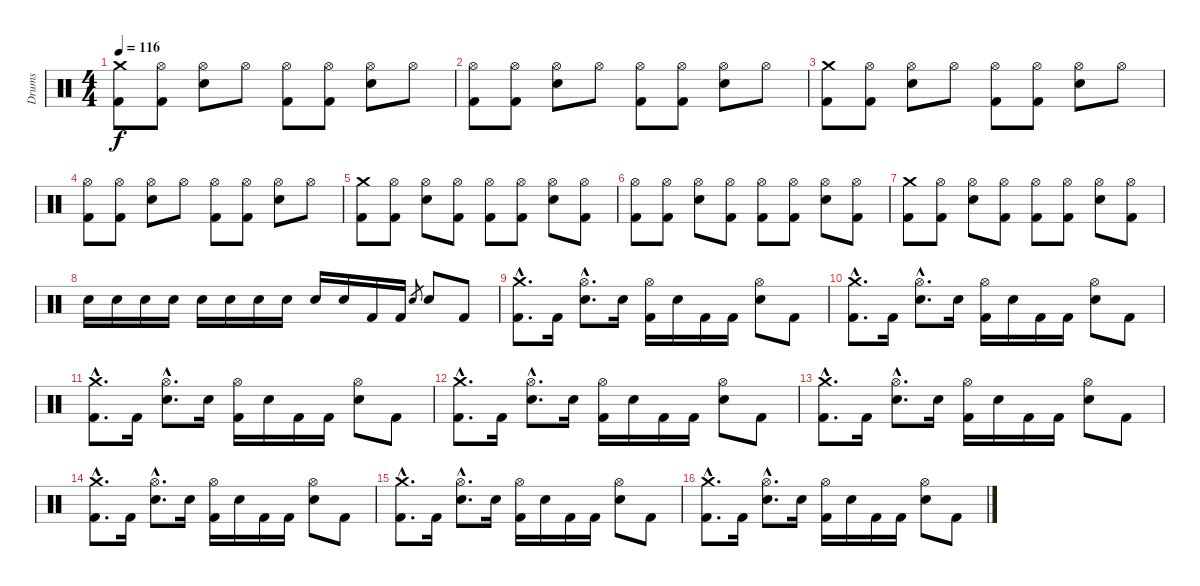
\track ("Drums" "Drums") {instrument percussion}
\staff {score}
\articulation defaults
\ts (4 4)
\tempo 116
\clef neutral
\ks c
("Crash medium (hit)" "Kick (hit) 2").8{dy f} ("Hi-Hat (open)" "Kick (hit) 2").8 ("Hi-Hat (open)" "Electric Snare (hit)").8 "Hi-Hat (open)".8 ("Hi-Hat (open)" "Kick (hit) 2").8 ("Hi-Hat (open)" "Kick (hit) 2").8 ("Hi-Hat (open)" "Electric Snare (hit)").8 "Hi-Hat (open)".8 |
("Hi-Hat (open)" "Kick (hit) 2").8 ("Hi-Hat (open)" "Kick (hit) 2").8 ("Hi-Hat (open)" "Electric Snare (hit)").8 "Hi-Hat (open)".8 ("Hi-Hat (open)" "Kick (hit) 2").8 ("Hi-Hat (open)" "Kick (hit) 2").8 ("Hi-Hat (open)" "Electric Snare (hit)").8 "Hi-Hat (open)".8 |
("Crash medium (hit)" "Kick (hit) 2").8 ("Hi-Hat (open)" "Kick (hit) 2").8 ("Hi-Hat (open)" "Electric Snare (hit)").8 "Hi-Hat (open)".8 ("Hi-Hat (open)" "Kick (hit) 2").8 ("Hi-Hat (open)" "Kick (hit) 2").8 ("Hi-Hat (open)" "Electric Snare (hit)").8 "Hi-Hat (open)".8 |
("Hi-Hat (open)" "Kick (hit) 2").8 ("Hi-Hat (open)" "Kick (hit) 2").8 ("Hi-Hat (open)" "Electric Snare (hit)").8 "Hi-Hat (open)".8 ("Hi-Hat (open)" "Kick (hit) 2").8 ("Hi-Hat (open)" "Kick (hit) 2").8 ("Hi-Hat (open)" "Electric Snare (hit)").8 "Hi-Hat (open)".8 |
("Crash medium (hit)" "Kick (hit) 2").8 ("Hi-Hat (open)" "Kick (hit) 2").8 ("Hi-Hat (open)" "Electric Snare (hit)").8 ("Hi-Hat (open)" "Kick (hit) 2").8 ("Hi-Hat (open)" "Kick (hit) 2").8 ("Hi-Hat (open)" "Kick (hit) 2").8 ("Hi-Hat (open)" "Electric Snare (hit)").8 ("Hi-Hat (open)" "Kick (hit) 2").8 |
("Hi-Hat (open)" "Kick (hit) 2").8 ("Hi-Hat (open)" "Kick (hit) 2").8 ("Hi-Hat (open)" "Electric Snare (hit)").8 ("Hi-Hat (open)" "Kick (hit) 2").8 ("Hi-Hat (open)" "Kick (hit) 2").8 ("Hi-Hat (open)" "Kick (hit) 2").8 ("Hi-Hat (open)" "Electric Snare (hit)").8 ("Hi-Hat (open)" "Kick (hit) 2").8 |
("Crash medium (hit)" "Kick (hit) 2").8 ("Hi-Hat (open)" "Kick (hit) 2").8 ("Hi-Hat (open)" "Electric Snare (hit)").8 ("Hi-Hat (open)" "Kick (hit) 2").8 ("Hi-Hat (open)" "Kick (hit) 2").8 ("Hi-Hat (open)" "Kick (hit) 2").8 ("Hi-Hat (open)" "Electric Snare (hit)").8 ("Hi-Hat (open)" "Kick (hit) 2").8 |
"Electric Snare (hit)".16 "Electric Snare (hit)".16 "Electric Snare (hit)".16 "Electric Snare (hit)".16 "Electric Snare (hit)".16 "Electric Snare (hit)".16 "Electric Snare (hit)".16 "Electric Snare (hit)".16 "Electric Snare (hit)".16 "Electric Snare (hit)".16 "Kick (hit) 2".16 "Kick (hit) 2".16 "Electric Snare (hit)".8{gr} "Electric Snare (hit)".8 "Kick (hit) 2".8 |
("Crash medium (hit)"{hac} "Kick (hit) 2"{hac}).8{d} "Kick (hit) 2".16 ("Hi-Hat (open)"{hac} "Electric Snare (hit)"{hac}).8{d} "Electric Snare (hit)".16 ("Hi-Hat (open)" "Kick (hit) 2").16 "Electric Snare (hit)".16 "Kick (hit) 2".16 "Kick (hit) 2".16 ("Hi-Hat (open)" "Electric Snare (hit)").8 "Kick (hit) 2".8 |
("Crash medium (hit)"{hac} "Kick (hit) 2"{hac}).8{d} "Kick (hit) 2".16 ("Hi-Hat (open)"{hac} "Electric Snare (hit)"{hac}).8{d} "Electric Snare (hit)".16 ("Hi-Hat (open)" "Kick (hit) 2").16 "Electric Snare (hit)".16 "Kick (hit) 2".16 "Kick (hit) 2".16 ("Hi-Hat (open)" "Electric Snare (hit)").8 "Kick (hit) 2".8 |
("Crash medium (hit)"{hac} "Kick (hit) 2"{hac}).8{d} "Kick (hit) 2".16 ("Hi-Hat (open)"{hac} "Electric Snare (hit)"{hac}).8{d} "Electric Snare (hit)".16 ("Hi-Hat (open)" "Kick (hit) 2").16 "Electric Snare (hit)".16 "Kick (hit) 2".16 "Kick (hit) 2".16 ("Hi-Hat (open)" "Electric Snare (hit)").8 "Kick (hit) 2".8 |
("Crash medium (hit)"{hac} "Kick (hit) 2"{hac}).8{d} "Kick (hit) 2".16 ("Hi-Hat (open)"{hac} "Electric Snare (hit)"{hac}).8{d} "Electric Snare (hit)".16 ("Hi-Hat (open)" "Kick (hit) 2").16 "Electric Snare (hit)".16 "Kick (hit) 2".16 "Kick (hit) 2".16 ("Hi-Hat (open)" "Electric Snare (hit)").8 "Kick (hit) 2".8 |
("Crash medium (hit)"{hac} "Kick (hit) 2"{hac}).8{d} "Kick (hit) 2".16 ("Hi-Hat (open)"{hac} "Electric Snare (hit)"{hac}).8{d} "Electric Snare (hit)".16 ("Hi-Hat (open)" "Kick (hit) 2").16 "Electric Snare (hit)".16 "Kick (hit) 2".16 "Kick (hit) 2".16 ("Hi-Hat (open)" "Electric Snare (hit)").8 "Kick (hit) 2".8 |
("Crash medium (hit)"{hac} "Kick (hit) 2"{hac}).8{d} "Kick (hit) 2".16 ("Hi-Hat (open)"{hac} "Electric Snare (hit)"{hac}).8{d} "Electric Snare (hit)".16 ("Hi-Hat (open)" "Kick (hit) 2").16 "Electric Snare (hit)".16 "Kick (hit) 2".16 "Kick (hit) 2".16 ("Hi-Hat (open)" "Electric Snare (hit)").8 "Kick (hit) 2".8 |
("Crash medium (hit)"{hac} "Kick (hit) 2"{hac}).8{d} "Kick (hit) 2".16 ("Hi-Hat (open)"{hac} "Electric Snare (hit)"{hac}).8{d} "Electric Snare (hit)".16 ("Hi-Hat (open)" "Kick (hit) 2").16 "Electric Snare (hit)".16 "Kick (hit) 2".16 "Kick (hit) 2".16 ("Hi-Hat (open)" "Electric Snare (hit)").8 "Kick (hit) 2".8 |
("Crash medium (hit)"{hac} "Kick (hit) 2"{hac}).8{d} "Kick (hit) 2".16 ("Hi-Hat (open)"{hac} "Electric Snare (hit)"{hac}).8{d} "Electric Snare (hit)".16 ("Hi-Hat (open)" "Kick (hit) 2").16 "Electric Snare (hit)".16 "Kick (hit) 2".16 "Kick (hit) 2".16 ("Hi-Hat (open)" "Electric Snare (hit)").8 "Kick (hit) 2".8
